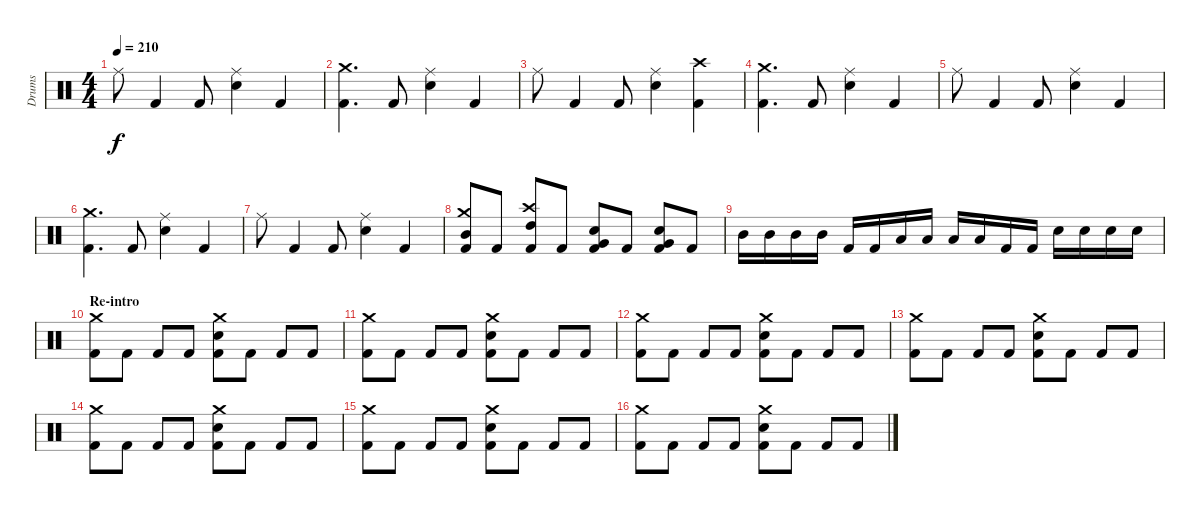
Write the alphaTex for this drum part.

\track ("Drums" "Drums") {instrument percussion}
\staff {score}
\articulation defaults
\ts (4 4)
\tempo 210
\clef neutral
\ks c "Ride (middle)".8{dy f} "Kick (hit) 2".4 "Kick (hit) 2".8
("Snare (hit) 2" "Ride (middle)").4 "Kick (hit) 2".4 |
("Kick (hit) 2" "Crash medium (hit)").4{d} "Kick (hit) 2".8 ("Snare (hit) 2" "Ride (middle)").4 "Kick (hit) 2".4 |
"Ride (middle)".8 "Kick (hit) 2".4 "Kick (hit) 2".8 ("Snare (hit) 2" "Ride (middle)").4 ("Kick (hit) 2" "Crash high (hit)").4 |
("Kick (hit) 2" "Crash medium (hit)").4{d} "Kick (hit) 2".8 ("Snare (hit) 2" "Ride (middle)").4 "Kick (hit) 2".4 |
"Ride (middle)".8 "Kick (hit) 2".4 "Kick (hit) 2".8 ("Snare (hit) 2" "Ride (middle)").4 "Kick (hit) 2".4 |
("Kick (hit) 2" "Crash medium (hit)").4{d} "Kick (hit) 2".8 ("Snare (hit) 2" "Ride (middle)").4 "Kick (hit) 2".4 |
"Ride (middle)".8 "Kick (hit) 2".4 "Kick (hit) 2".8 ("Snare (hit) 2" "Ride (middle)").4 "Kick (hit) 2".4 |
("Kick (hit) 2" "Mid Tom (hit)" "Crash medium (hit)").8 "Kick (hit) 2".8 ("Kick (hit) 2" "High Tom (hit)" "Crash high (hit)").8 "Kick (hit) 2".8 ("Kick (hit) 2" "Snare (hit) 2" "Very Low Tom (hit)").8 "Kick (hit) 2".8 ("Kick (hit) 2" "Snare (hit) 2" "Very Low Tom (hit)").8 "Kick (hit) 2".8 |
"Mid Tom (hit)".16 "Mid Tom (hit)".16 "Mid Tom (hit)".16 "Mid Tom (hit)".16 "Kick (hit) 2".16 "Kick (hit) 2".16 "Low Tom (hit)".16 "Low Tom (hit)".16 "Low Tom (hit)".16 "Low Tom (hit)".16 "Kick (hit) 2".16 "Kick (hit) 2".16 "Snare (hit) 2".16 "Snare (hit) 2".16 "Snare (hit) 2".16 "Snare (hit) 2".16 |
\section ("" "Re-intro")
("Kick (hit) 2" "Crash medium (hit)").8 "Kick (hit) 2".8 "Kick (hit) 2".8 "Kick (hit) 2".8 ("Kick (hit) 2" "Snare (hit) 2" "Crash medium (hit)").8 "Kick (hit) 2".8 "Kick (hit) 2".8 "Kick (hit) 2".8 |
("Kick (hit) 2" "Crash medium (hit)").8 "Kick (hit) 2".8 "Kick (hit) 2".8 "Kick (hit) 2".8 ("Kick (hit) 2" "Snare (hit) 2" "Crash medium (hit)").8 "Kick (hit) 2".8 "Kick (hit) 2".8 "Kick (hit) 2".8 |
("Kick (hit) 2" "Crash medium (hit)").8 "Kick (hit) 2".8 "Kick (hit) 2".8 "Kick (hit) 2".8 ("Kick (hit) 2" "Snare (hit) 2" "Crash medium (hit)").8 "Kick (hit) 2".8 "Kick (hit) 2".8 "Kick (hit) 2".8 |
("Kick (hit) 2" "Crash medium (hit)").8 "Kick (hit) 2".8 "Kick (hit) 2".8 "Kick (hit) 2".8 ("Kick (hit) 2" "Snare (hit) 2" "Crash medium (hit)").8 "Kick (hit) 2".8 "Kick (hit) 2".8 "Kick (hit) 2".8 |
("Kick (hit) 2" "Crash medium (hit)").8 "Kick (hit) 2".8 "Kick (hit) 2".8 "Kick (hit) 2".8 ("Kick (hit) 2" "Snare (hit) 2" "Crash medium (hit)").8 "Kick (hit) 2".8 "Kick (hit) 2".8 "Kick (hit) 2".8 |
("Kick (hit) 2" "Crash medium (hit)").8 "Kick (hit) 2".8 "Kick (hit) 2".8 "Kick (hit) 2".8 ("Kick (hit) 2" "Snare (hit) 2" "Crash medium (hit)").8 "Kick (hit) 2".8 "Kick (hit) 2".8 "Kick (hit) 2".8 |
("Kick (hit) 2" "Crash medium (hit)").8 "Kick (hit) 2".8 "Kick (hit) 2".8 "Kick (hit) 2".8 ("Kick (hit) 2" "Snare (hit) 2" "Crash medium (hit)").8 "Kick (hit) 2".8 "Kick (hit) 2".8 "Kick (hit) 2".8
